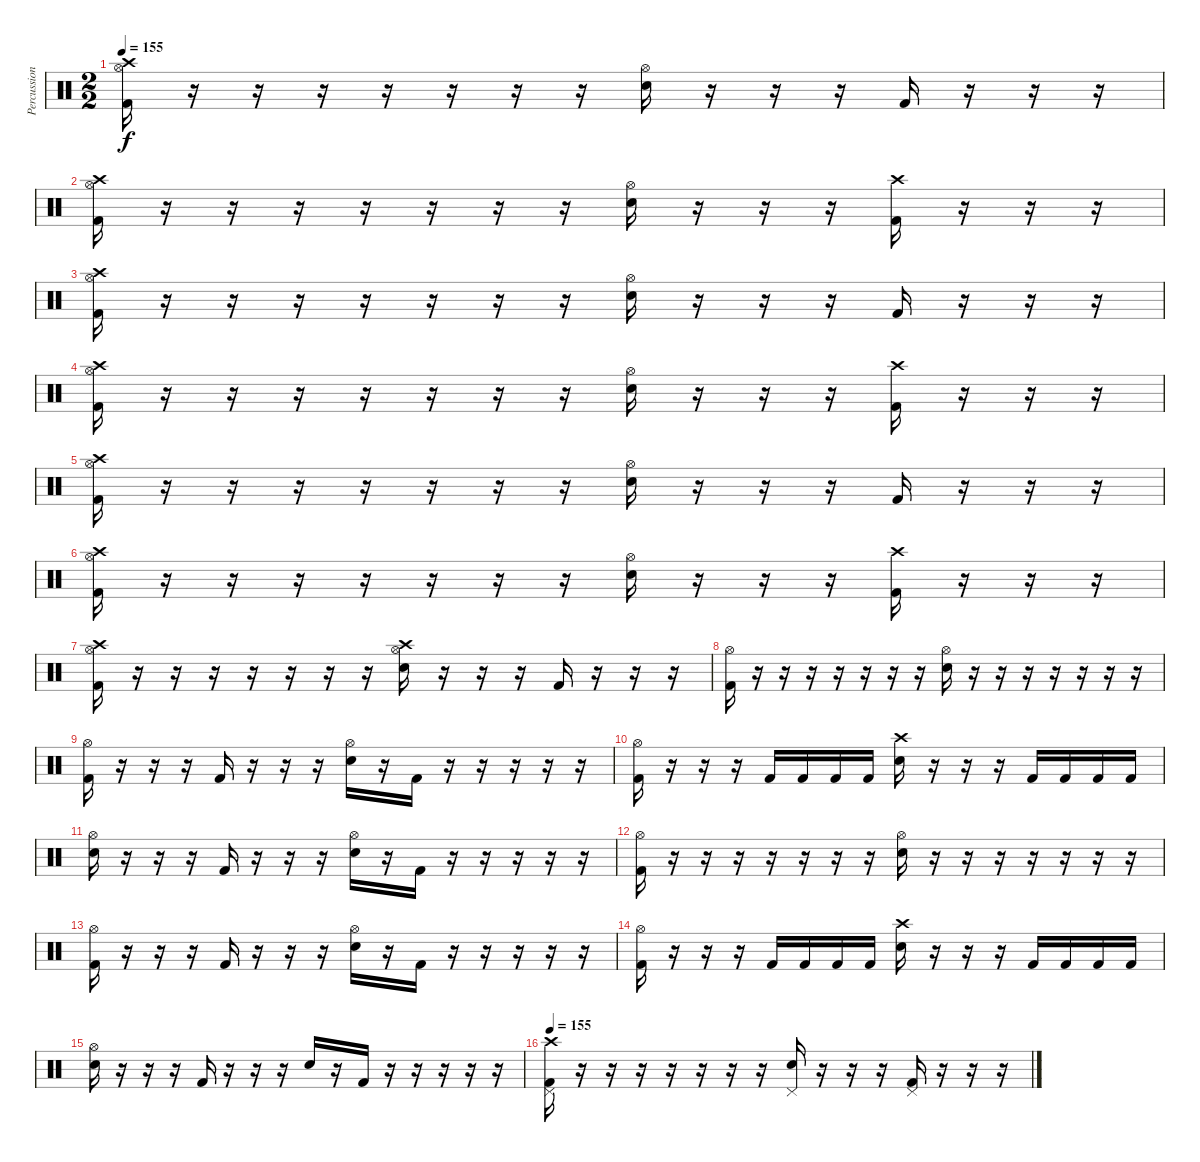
\track ("Percussion" "Percussion") {instrument percussion}
\staff {score}
\articulation defaults
\ts (2 2)
\tempo 155
\clef neutral
\ks c
("Hi-Hat (open)" "Crash high (hit)" "Kick (hit) 2").16{dy f} r.16 r.16 r.16 r.16 r.16 r.16 r.16 ("Hi-Hat (open)" "Snare (hit) 2").16 r.16 r.16 r.16 "Kick (hit) 2".16 r.16 r.16 r.16 |
("Hi-Hat (open)" "Crash high (hit)" "Kick (hit) 2").16 r.16 r.16 r.16 r.16 r.16 r.16 r.16 ("Hi-Hat (open)" "Snare (hit) 2").16 r.16 r.16 r.16 ("Crash high (hit)" "Kick (hit) 2").16 r.16 r.16 r.16 |
("Hi-Hat (open)" "Crash high (hit)" "Kick (hit) 2").16 r.16 r.16 r.16 r.16 r.16 r.16 r.16 ("Hi-Hat (open)" "Snare (hit) 2").16 r.16 r.16 r.16 "Kick (hit) 2".16 r.16 r.16 r.16 |
("Hi-Hat (open)" "Crash high (hit)" "Kick (hit) 2").16 r.16 r.16 r.16 r.16 r.16 r.16 r.16 ("Hi-Hat (open)" "Snare (hit) 2").16 r.16 r.16 r.16 ("Crash high (hit)" "Kick (hit) 2").16 r.16 r.16 r.16 |
("Hi-Hat (open)" "Crash high (hit)" "Kick (hit) 2").16 r.16 r.16 r.16 r.16 r.16 r.16 r.16 ("Hi-Hat (open)" "Snare (hit) 2").16 r.16 r.16 r.16 "Kick (hit) 2".16 r.16 r.16 r.16 |
("Hi-Hat (open)" "Crash high (hit)" "Kick (hit) 2").16 r.16 r.16 r.16 r.16 r.16 r.16 r.16 ("Hi-Hat (open)" "Snare (hit) 2").16 r.16 r.16 r.16 ("Crash high (hit)" "Kick (hit) 2").16 r.16 r.16 r.16 |
("Hi-Hat (open)" "Crash high (hit)" "Kick (hit) 2").16 r.16 r.16 r.16 r.16 r.16 r.16 r.16 ("Hi-Hat (open)" "Crash high (hit)" "Snare (hit) 2").16 r.16 r.16 r.16 "Kick (hit) 2".16 r.16 r.16 r.16 |
("Hi-Hat (open)" "Kick (hit) 2").16 r.16 r.16 r.16 r.16 r.16 r.16 r.16 ("Hi-Hat (open)" "Snare (hit) 2").16 r.16 r.16 r.16 r.16 r.16 r.16 r.16 |
("Hi-Hat (open)" "Kick (hit) 2").16 r.16 r.16 r.16 "Kick (hit) 2".16 r.16 r.16 r.16 ("Hi-Hat (open)" "Snare (hit) 2").16 r.16 "Kick (hit) 2".16 r.16 r.16 r.16 r.16 r.16 |
("Hi-Hat (open)" "Kick (hit) 2").16 r.16 r.16 r.16 "Kick (hit) 2".16 "Kick (hit) 2".16 "Kick (hit) 2".16 "Kick (hit) 2".16 ("Crash high (hit)" "Snare (hit) 2").16 r.16 r.16 r.16 "Kick (hit) 2".16 "Kick (hit) 2".16 "Kick (hit) 2".16 "Kick (hit) 2".16 |
("Hi-Hat (open)" "Snare (hit) 2").16 r.16 r.16 r.16 "Kick (hit) 2".16 r.16 r.16 r.16 ("Hi-Hat (open)" "Snare (hit) 2").16 r.16 "Kick (hit) 2".16 r.16 r.16 r.16 r.16 r.16 |
("Hi-Hat (open)" "Kick (hit) 2").16 r.16 r.16 r.16 r.16 r.16 r.16 r.16 ("Hi-Hat (open)" "Snare (hit) 2").16 r.16 r.16 r.16 r.16 r.16 r.16 r.16 |
("Hi-Hat (open)" "Kick (hit) 2").16 r.16 r.16 r.16 "Kick (hit) 2".16 r.16 r.16 r.16 ("Hi-Hat (open)" "Snare (hit) 2").16 r.16 "Kick (hit) 2".16 r.16 r.16 r.16 r.16 r.16 |
("Hi-Hat (open)" "Kick (hit) 2").16 r.16 r.16 r.16 "Kick (hit) 2".16 "Kick (hit) 2".16 "Kick (hit) 2".16 "Kick (hit) 2".16 ("Crash high (hit)" "Snare (hit) 2").16 r.16 r.16 r.16 "Kick (hit) 2".16 "Kick (hit) 2".16 "Kick (hit) 2".16 "Kick (hit) 2".16 |
("Hi-Hat (open)" "Snare (hit) 2").16 r.16 r.16 r.16 "Kick (hit) 2".16 r.16 r.16 r.16 "Snare (hit) 2".16 r.16 "Kick (hit) 2".16 r.16 r.16 r.16 r.16 r.16 |
\tempo 155
("Crash high (hit)" "Pedal Hi-Hat (hit)" "Kick (hit) 2").16 r.16 r.16 r.16 r.16 r.16 r.16 r.16 ("Pedal Hi-Hat (hit)" "Snare (hit) 2").16 r.16 r.16 r.16 ("Pedal Hi-Hat (hit)" "Kick (hit) 2").16 r.16 r.16 r.16
